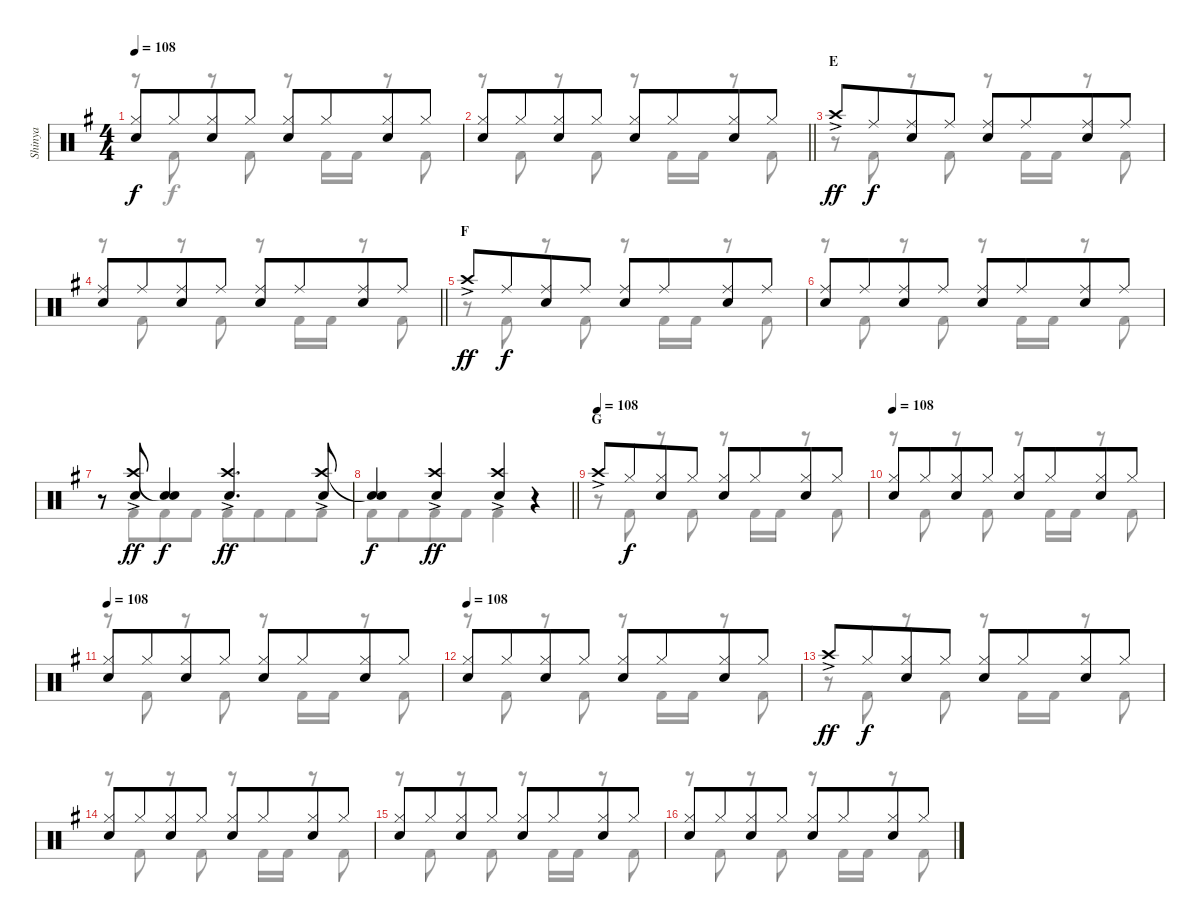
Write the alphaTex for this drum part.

\track ("Shinya" "Shinya") {instrument percussion}
\staff {score}
\articulation defaults
\voice
\ts (4 4)
\tempo 108
\clef neutral
\ks eminor
("Hi-Hat (closed)" "Snare (hit) 2").8{dy f} "Hi-Hat (closed)".8{beam merge} ("Hi-Hat (closed)" "Snare (hit) 2").8 "Hi-Hat (closed)".8 ("Hi-Hat (closed)" "Snare (hit) 2").8 "Hi-Hat (closed)".8{beam merge} ("Hi-Hat (closed)" "Snare (hit) 2").8 "Hi-Hat (closed)".8 |
\barLineRight lightlight
("Hi-Hat (closed)" "Snare (hit) 2").8 "Hi-Hat (closed)".8{beam merge} ("Hi-Hat (closed)" "Snare (hit) 2").8 "Hi-Hat (closed)".8 ("Hi-Hat (closed)" "Snare (hit) 2").8 "Hi-Hat (closed)".8{beam merge} ("Hi-Hat (closed)" "Snare (hit) 2").8 "Hi-Hat (closed)".8 |
\section ("" "E")
"Crash high (hit)"{ac}.8{dy ff} "Ride (middle)".8{dy f beam merge} ("Ride (middle)" "Snare (hit) 2").8 "Ride (middle)".8 ("Ride (middle)" "Snare (hit) 2").8 "Ride (middle)".8{beam merge} ("Ride (middle)" "Snare (hit) 2").8 "Ride (middle)".8 |
\barLineRight lightlight
("Ride (middle)" "Snare (hit) 2").8 "Ride (middle)".8{beam merge} ("Ride (middle)" "Snare (hit) 2").8 "Ride (middle)".8 ("Ride (middle)" "Snare (hit) 2").8 "Ride (middle)".8{beam merge} ("Ride (middle)" "Snare (hit) 2").8 "Ride (middle)".8 |
\section ("" "F")
"Crash high (hit)"{ac}.8{dy ff} "Ride (middle)".8{dy f beam merge} ("Ride (middle)" "Snare (hit) 2").8 "Ride (middle)".8 ("Ride (middle)" "Snare (hit) 2").8 "Ride (middle)".8{beam merge} ("Ride (middle)" "Snare (hit) 2").8 "Ride (middle)".8 |
("Ride (middle)" "Snare (hit) 2").8 "Ride (middle)".8{beam merge} ("Ride (middle)" "Snare (hit) 2").8 "Ride (middle)".8 ("Ride (middle)" "Snare (hit) 2").8 "Ride (middle)".8{beam merge} ("Ride (middle)" "Snare (hit) 2").8 "Ride (middle)".8 |
r.8 ("Crash high (hit)"{ac} "Snare (hit) 2").8{dy ff} ("Snare (hit)"{t} "Snare (hit) 2").4{dy f} ("Crash high (hit)"{ac} "Snare (hit) 2").4{d dy ff} ("Crash high (hit)"{ac} "Snare (hit) 2").8 |
\barLineRight lightlight
("Snare (hit)"{t} "Snare (hit) 2").4{dy f} ("Crash high (hit)"{ac} "Snare (hit) 2").4{dy ff} ("Crash high (hit)" "Snare (hit) 2"{ac}).4 r.4 |
\section ("" "G")
\tempo (108)
"Crash high (hit)"{ac}.8 "Hi-Hat (closed)".8{dy f beam merge} ("Hi-Hat (closed)" "Snare (hit) 2").8 "Hi-Hat (closed)".8 ("Hi-Hat (closed)" "Snare (hit) 2").8 "Hi-Hat (closed)".8{beam merge} ("Hi-Hat (closed)" "Snare (hit) 2").8 "Hi-Hat (closed)".8 |
\tempo 108
("Hi-Hat (closed)" "Snare (hit) 2").8 "Hi-Hat (closed)".8{beam merge} ("Hi-Hat (closed)" "Snare (hit) 2").8 "Hi-Hat (closed)".8 ("Hi-Hat (closed)" "Snare (hit) 2").8 "Hi-Hat (closed)".8{beam merge} ("Hi-Hat (closed)" "Snare (hit) 2").8 "Hi-Hat (closed)".8 |
\tempo 108
("Hi-Hat (closed)" "Snare (hit) 2").8 "Hi-Hat (closed)".8{beam merge} ("Hi-Hat (closed)" "Snare (hit) 2").8 "Hi-Hat (closed)".8 ("Hi-Hat (closed)" "Snare (hit) 2").8 "Hi-Hat (closed)".8{beam merge} ("Hi-Hat (closed)" "Snare (hit) 2").8 "Hi-Hat (closed)".8 |
\tempo 108
("Hi-Hat (closed)" "Snare (hit) 2").8 "Hi-Hat (closed)".8{beam merge} ("Hi-Hat (closed)" "Snare (hit) 2").8 "Hi-Hat (closed)".8 ("Hi-Hat (closed)" "Snare (hit) 2").8 "Hi-Hat (closed)".8{beam merge} ("Hi-Hat (closed)" "Snare (hit) 2").8 "Hi-Hat (closed)".8 |
"Crash high (hit)"{ac}.8{dy ff} "Hi-Hat (closed)".8{dy f beam merge} ("Hi-Hat (closed)" "Snare (hit) 2").8 "Hi-Hat (closed)".8 ("Hi-Hat (closed)" "Snare (hit) 2").8 "Hi-Hat (closed)".8{beam merge} ("Hi-Hat (closed)" "Snare (hit) 2").8 "Hi-Hat (closed)".8 |
("Hi-Hat (closed)" "Snare (hit) 2").8 "Hi-Hat (closed)".8{beam merge} ("Hi-Hat (closed)" "Snare (hit) 2").8 "Hi-Hat (closed)".8 ("Hi-Hat (closed)" "Snare (hit) 2").8 "Hi-Hat (closed)".8{beam merge} ("Hi-Hat (closed)" "Snare (hit) 2").8 "Hi-Hat (closed)".8 |
("Hi-Hat (closed)" "Snare (hit) 2").8 "Hi-Hat (closed)".8{beam merge} ("Hi-Hat (closed)" "Snare (hit) 2").8 "Hi-Hat (closed)".8 ("Hi-Hat (closed)" "Snare (hit) 2").8 "Hi-Hat (closed)".8{beam merge} ("Hi-Hat (closed)" "Snare (hit) 2").8 "Hi-Hat (closed)".8 |
("Hi-Hat (closed)" "Snare (hit) 2").8 "Hi-Hat (closed)".8{beam merge} ("Hi-Hat (closed)" "Snare (hit) 2").8 "Hi-Hat (closed)".8 ("Hi-Hat (closed)" "Snare (hit) 2").8 "Hi-Hat (closed)".8{beam merge} ("Hi-Hat (closed)" "Snare (hit) 2").8 "Hi-Hat (closed)".8
\voice
\clef neutral
\ottava regular
\simile none
\ks eminor
r.8{dy f} "Kick (hit) 2".8 r.8 "Kick (hit) 2".8 r.8 "Kick (hit) 2".16 "Kick (hit) 2".16 r.8 "Kick (hit) 2".8 |
\barLineRight lightlight
r.8 "Kick (hit) 2".8 r.8 "Kick (hit) 2".8 r.8 "Kick (hit) 2".16 "Kick (hit) 2".16 r.8 "Kick (hit) 2".8 |
r.8 "Kick (hit) 2".8 r.8 "Kick (hit) 2".8 r.8 "Kick (hit) 2".16 "Kick (hit) 2".16 r.8 "Kick (hit) 2".8 |
\barLineRight lightlight
r.8 "Kick (hit) 2".8 r.8 "Kick (hit) 2".8 r.8 "Kick (hit) 2".16 "Kick (hit) 2".16 r.8 "Kick (hit) 2".8 |
r.8 "Kick (hit) 2".8 r.8 "Kick (hit) 2".8 r.8 "Kick (hit) 2".16 "Kick (hit) 2".16 r.8 "Kick (hit) 2".8 |
r.8 "Kick (hit) 2".8 r.8 "Kick (hit) 2".8 r.8 "Kick (hit) 2".16 "Kick (hit) 2".16 r.8 "Kick (hit) 2".8 |
r.8 "Kick (hit) 2".8{beam merge} "Kick (hit) 2".8 "Kick (hit) 2".8 "Kick (hit) 2".8 "Kick (hit) 2".8{beam merge} "Kick (hit) 2".8 "Kick (hit) 2".8 |
\barLineRight lightlight "Kick (hit) 2".8 "Kick (hit) 2".8{beam merge} "Kick (hit) 2".8 "Kick (hit) 2".8 "Kick (hit) 2".4
r.4 |
r.8 "Kick (hit) 2".8 r.8 "Kick (hit) 2".8 r.8 "Kick (hit) 2".16 "Kick (hit) 2".16 r.8 "Kick (hit) 2".8 |
r.8 "Kick (hit) 2".8 r.8 "Kick (hit) 2".8 r.8 "Kick (hit) 2".16 "Kick (hit) 2".16 r.8 "Kick (hit) 2".8 |
r.8 "Kick (hit) 2".8 r.8 "Kick (hit) 2".8 r.8 "Kick (hit) 2".16 "Kick (hit) 2".16 r.8 "Kick (hit) 2".8 |
r.8 "Kick (hit) 2".8 r.8 "Kick (hit) 2".8 r.8 "Kick (hit) 2".16 "Kick (hit) 2".16 r.8 "Kick (hit) 2".8 |
r.8 "Kick (hit) 2".8 r.8 "Kick (hit) 2".8 r.8 "Kick (hit) 2".16 "Kick (hit) 2".16 r.8 "Kick (hit) 2".8 |
r.8 "Kick (hit) 2".8 r.8 "Kick (hit) 2".8 r.8 "Kick (hit) 2".16 "Kick (hit) 2".16 r.8 "Kick (hit) 2".8 |
r.8 "Kick (hit) 2".8 r.8 "Kick (hit) 2".8 r.8 "Kick (hit) 2".16 "Kick (hit) 2".16 r.8 "Kick (hit) 2".8 |
r.8 "Kick (hit) 2".8 r.8 "Kick (hit) 2".8 r.8 "Kick (hit) 2".16 "Kick (hit) 2".16 r.8 "Kick (hit) 2".8
